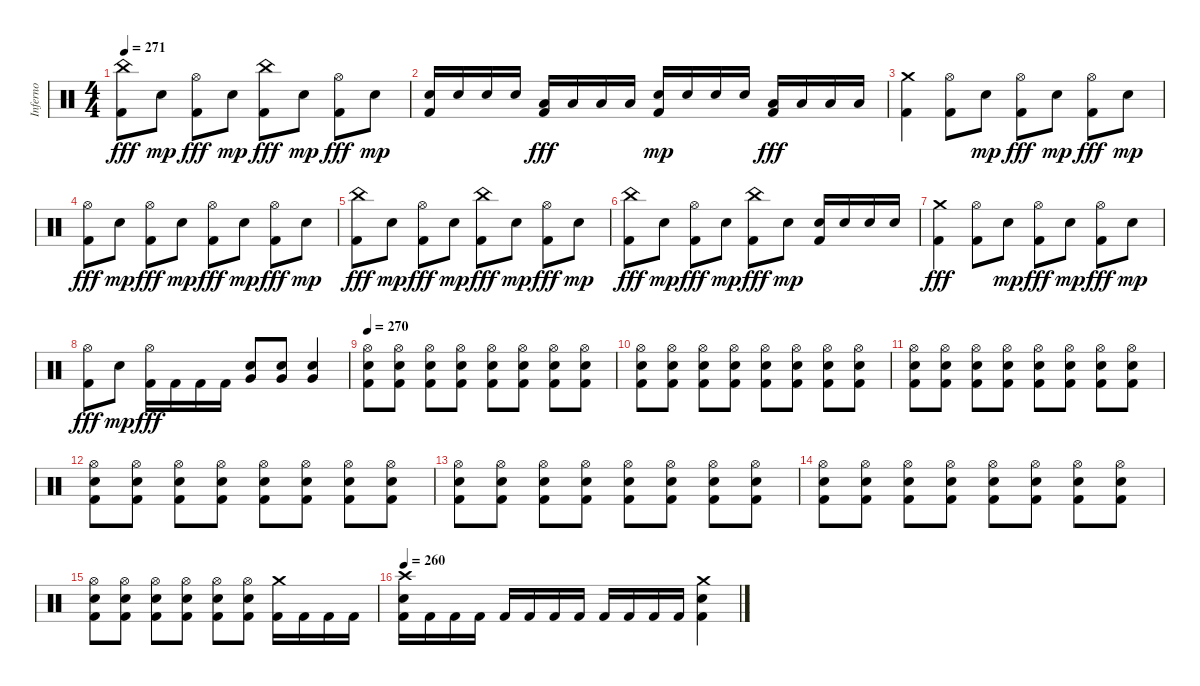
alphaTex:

\track ("Inferno" "Inferno") {instrument percussion}
\staff {score}
\articulation defaults
\ts (4 4)
\tempo 271
\clef neutral
\ks c
("Kick (hit) 2" "China (hit)").8{dy fff} "Electric Snare (hit)".8{dy mp} ("Kick (hit) 2" "Hi-Hat (open)").8{dy fff} "Electric Snare (hit)".8{dy mp} ("Kick (hit) 2" "China (hit)").8{dy fff} "Electric Snare (hit)".8{dy mp} ("Kick (hit) 2" "Hi-Hat (open)").8{dy fff} "Electric Snare (hit)".8{dy mp} |
("Kick (hit) 2" "Electric Snare (hit)").16 "Electric Snare (hit)".16 "Electric Snare (hit)".16 "Electric Snare (hit)".16 ("Kick (hit) 2" "Low Tom (hit)").16{dy fff} "Low Tom (hit)".16 "Low Tom (hit)".16 "Low Tom (hit)".16 ("Kick (hit) 2" "Electric Snare (hit)").16{dy mp} "Electric Snare (hit)".16 "Electric Snare (hit)".16 "Electric Snare (hit)".16 ("Kick (hit) 2" "Low Tom (hit)").16{dy fff} "Low Tom (hit)".16 "Low Tom (hit)".16 "Low Tom (hit)".16 |
("Kick (hit) 2" "Crash medium (hit)").4 ("Kick (hit) 2" "Hi-Hat (open)").8 "Electric Snare (hit)".8{dy mp} ("Kick (hit) 2" "Hi-Hat (open)").8{dy fff} "Electric Snare (hit)".8{dy mp} ("Kick (hit) 2" "Hi-Hat (open)").8{dy fff} "Electric Snare (hit)".8{dy mp} |
("Kick (hit) 2" "Hi-Hat (open)").8{dy fff} "Electric Snare (hit)".8{dy mp} ("Kick (hit) 2" "Hi-Hat (open)").8{dy fff} "Electric Snare (hit)".8{dy mp} ("Kick (hit) 2" "Hi-Hat (open)").8{dy fff} "Electric Snare (hit)".8{dy mp} ("Kick (hit) 2" "Hi-Hat (open)").8{dy fff} "Electric Snare (hit)".8{dy mp} |
("Kick (hit) 2" "China (hit)").8{dy fff} "Electric Snare (hit)".8{dy mp} ("Kick (hit) 2" "Hi-Hat (open)").8{dy fff} "Electric Snare (hit)".8{dy mp} ("Kick (hit) 2" "China (hit)").8{dy fff} "Electric Snare (hit)".8{dy mp} ("Kick (hit) 2" "Hi-Hat (open)").8{dy fff} "Electric Snare (hit)".8{dy mp} |
("Kick (hit) 2" "China (hit)").8{dy fff} "Electric Snare (hit)".8{dy mp} ("Kick (hit) 2" "Hi-Hat (open)").8{dy fff} "Electric Snare (hit)".8{dy mp} ("Kick (hit) 2" "China (hit)").8{dy fff} "Electric Snare (hit)".8{dy mp} ("Kick (hit) 2" "Electric Snare (hit)").16 "Electric Snare (hit)".16 "Electric Snare (hit)".16 "Electric Snare (hit)".16 |
("Kick (hit) 2" "Crash medium (hit)").4{dy fff} ("Kick (hit) 2" "Hi-Hat (open)").8 "Electric Snare (hit)".8{dy mp} ("Kick (hit) 2" "Hi-Hat (open)").8{dy fff} "Electric Snare (hit)".8{dy mp} ("Kick (hit) 2" "Hi-Hat (open)").8{dy fff} "Electric Snare (hit)".8{dy mp} |
("Kick (hit) 2" "Hi-Hat (open)").8{dy fff} "Electric Snare (hit)".8{dy mp} ("Kick (hit) 2" "Hi-Hat (open)").16{dy fff} "Kick (hit) 2".16 "Kick (hit) 2".16 "Kick (hit) 2".16 ("Electric Snare (hit)" "Very Low Tom (hit)").8 ("Electric Snare (hit)" "Very Low Tom (hit)").8 ("Electric Snare (hit)" "Very Low Tom (hit)").4 |
\tempo 270
("Kick (hit) 2" "Electric Snare (hit)" "Hi-Hat (open)").8 ("Kick (hit) 2" "Electric Snare (hit)" "Hi-Hat (open)").8 ("Kick (hit) 2" "Electric Snare (hit)" "Hi-Hat (open)").8 ("Kick (hit) 2" "Electric Snare (hit)" "Hi-Hat (open)").8 ("Kick (hit) 2" "Electric Snare (hit)" "Hi-Hat (open)").8 ("Kick (hit) 2" "Electric Snare (hit)" "Hi-Hat (open)").8 ("Kick (hit) 2" "Electric Snare (hit)" "Hi-Hat (open)").8 ("Kick (hit) 2" "Electric Snare (hit)" "Hi-Hat (open)").8 |
("Kick (hit) 2" "Electric Snare (hit)" "Hi-Hat (open)").8 ("Kick (hit) 2" "Electric Snare (hit)" "Hi-Hat (open)").8 ("Kick (hit) 2" "Electric Snare (hit)" "Hi-Hat (open)").8 ("Kick (hit) 2" "Electric Snare (hit)" "Hi-Hat (open)").8 ("Kick (hit) 2" "Electric Snare (hit)" "Hi-Hat (open)").8 ("Kick (hit) 2" "Electric Snare (hit)" "Hi-Hat (open)").8 ("Kick (hit) 2" "Electric Snare (hit)" "Hi-Hat (open)").8 ("Kick (hit) 2" "Electric Snare (hit)" "Hi-Hat (open)").8 |
("Kick (hit) 2" "Electric Snare (hit)" "Hi-Hat (open)").8 ("Kick (hit) 2" "Electric Snare (hit)" "Hi-Hat (open)").8 ("Kick (hit) 2" "Electric Snare (hit)" "Hi-Hat (open)").8 ("Kick (hit) 2" "Electric Snare (hit)" "Hi-Hat (open)").8 ("Kick (hit) 2" "Electric Snare (hit)" "Hi-Hat (open)").8 ("Kick (hit) 2" "Electric Snare (hit)" "Hi-Hat (open)").8 ("Kick (hit) 2" "Electric Snare (hit)" "Hi-Hat (open)").8 ("Kick (hit) 2" "Electric Snare (hit)" "Hi-Hat (open)").8 |
("Kick (hit) 2" "Electric Snare (hit)" "Hi-Hat (open)").8 ("Kick (hit) 2" "Electric Snare (hit)" "Hi-Hat (open)").8 ("Kick (hit) 2" "Electric Snare (hit)" "Hi-Hat (open)").8 ("Kick (hit) 2" "Electric Snare (hit)" "Hi-Hat (open)").8 ("Kick (hit) 2" "Electric Snare (hit)" "Hi-Hat (open)").8 ("Kick (hit) 2" "Electric Snare (hit)" "Hi-Hat (open)").8 ("Kick (hit) 2" "Electric Snare (hit)" "Hi-Hat (open)").8 ("Kick (hit) 2" "Electric Snare (hit)" "Hi-Hat (open)").8 |
("Kick (hit) 2" "Electric Snare (hit)" "Hi-Hat (open)").8 ("Kick (hit) 2" "Electric Snare (hit)" "Hi-Hat (open)").8 ("Kick (hit) 2" "Electric Snare (hit)" "Hi-Hat (open)").8 ("Kick (hit) 2" "Electric Snare (hit)" "Hi-Hat (open)").8 ("Kick (hit) 2" "Electric Snare (hit)" "Hi-Hat (open)").8 ("Kick (hit) 2" "Electric Snare (hit)" "Hi-Hat (open)").8 ("Kick (hit) 2" "Electric Snare (hit)" "Hi-Hat (open)").8 ("Kick (hit) 2" "Electric Snare (hit)" "Hi-Hat (open)").8 |
("Kick (hit) 2" "Electric Snare (hit)" "Hi-Hat (open)").8 ("Kick (hit) 2" "Electric Snare (hit)" "Hi-Hat (open)").8 ("Kick (hit) 2" "Electric Snare (hit)" "Hi-Hat (open)").8 ("Kick (hit) 2" "Electric Snare (hit)" "Hi-Hat (open)").8 ("Kick (hit) 2" "Electric Snare (hit)" "Hi-Hat (open)").8 ("Kick (hit) 2" "Electric Snare (hit)" "Hi-Hat (open)").8 ("Kick (hit) 2" "Electric Snare (hit)" "Hi-Hat (open)").8 ("Kick (hit) 2" "Electric Snare (hit)" "Hi-Hat (open)").8 |
("Kick (hit) 2" "Electric Snare (hit)" "Hi-Hat (open)").8 ("Kick (hit) 2" "Electric Snare (hit)" "Hi-Hat (open)").8 ("Kick (hit) 2" "Electric Snare (hit)" "Hi-Hat (open)").8 ("Kick (hit) 2" "Electric Snare (hit)" "Hi-Hat (open)").8 ("Kick (hit) 2" "Electric Snare (hit)" "Hi-Hat (open)").8 ("Kick (hit) 2" "Electric Snare (hit)" "Hi-Hat (open)").8 ("Kick (hit) 2" "Crash medium (hit)").16 "Kick (hit) 2".16 "Kick (hit) 2".16 "Kick (hit) 2".16 |
\tempo 260
("Kick (hit) 2" "Electric Snare (hit)" "Crash high (hit)").16 "Kick (hit) 2".16 "Kick (hit) 2".16 "Kick (hit) 2".16 "Kick (hit) 2".16 "Kick (hit) 2".16 "Kick (hit) 2".16 "Kick (hit) 2".16 "Kick (hit) 2".16 "Kick (hit) 2".16 "Kick (hit) 2".16 "Kick (hit) 2".16 ("Kick (hit) 2" "Electric Snare (hit)" "Crash medium (hit)").4
